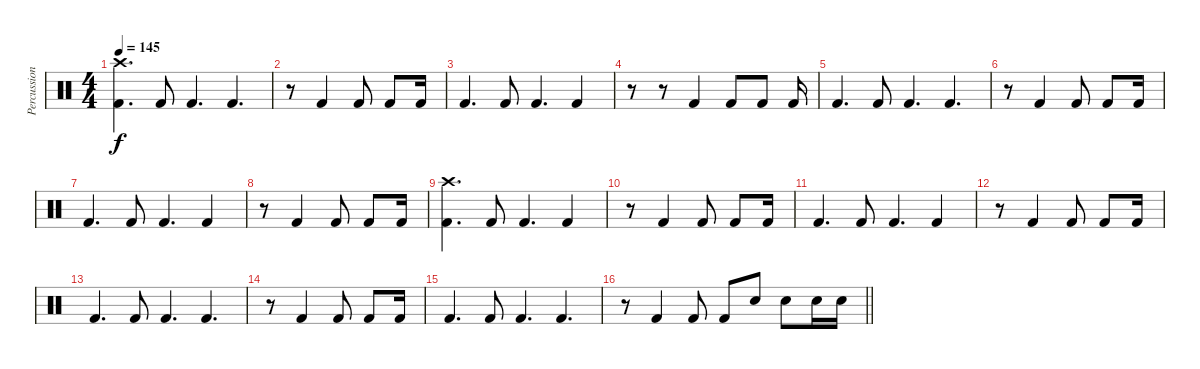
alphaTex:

\track ("Percussion" "Percussion") {instrument percussion}
\staff {score}
\articulation defaults
\ts (4 4)
\tempo 145
\clef neutral
\ks c
("Crash high (hit)" "Kick (hit) 2").4{d dy f} "Kick (hit) 2".8 "Kick (hit) 2".4{d} "Kick (hit) 2".4{d} |
r.8 "Kick (hit) 2".4 "Kick (hit) 2".8 "Kick (hit) 2".8 "Kick (hit) 2".16 |
"Kick (hit) 2".4{d} "Kick (hit) 2".8 "Kick (hit) 2".4{d} "Kick (hit) 2".4 |
r.8 r.8 "Kick (hit) 2".4 "Kick (hit) 2".8 "Kick (hit) 2".8 "Kick (hit) 2".16 |
"Kick (hit) 2".4{d} "Kick (hit) 2".8 "Kick (hit) 2".4{d} "Kick (hit) 2".4{d} |
r.8 "Kick (hit) 2".4 "Kick (hit) 2".8 "Kick (hit) 2".8 "Kick (hit) 2".16 |
"Kick (hit) 2".4{d} "Kick (hit) 2".8 "Kick (hit) 2".4{d} "Kick (hit) 2".4 |
r.8 "Kick (hit) 2".4 "Kick (hit) 2".8 "Kick (hit) 2".8 "Kick (hit) 2".16 |
("Crash high (hit)" "Kick (hit) 2").4{d} "Kick (hit) 2".8 "Kick (hit) 2".4{d} "Kick (hit) 2".4 |
r.8 "Kick (hit) 2".4 "Kick (hit) 2".8 "Kick (hit) 2".8 "Kick (hit) 2".16 |
"Kick (hit) 2".4{d} "Kick (hit) 2".8 "Kick (hit) 2".4{d} "Kick (hit) 2".4 |
r.8 "Kick (hit) 2".4 "Kick (hit) 2".8 "Kick (hit) 2".8 "Kick (hit) 2".16 |
"Kick (hit) 2".4{d} "Kick (hit) 2".8 "Kick (hit) 2".4{d} "Kick (hit) 2".4{d} |
r.8 "Kick (hit) 2".4 "Kick (hit) 2".8 "Kick (hit) 2".8 "Kick (hit) 2".16 |
"Kick (hit) 2".4{d} "Kick (hit) 2".8 "Kick (hit) 2".4{d} "Kick (hit) 2".4{d} |
\barLineRight lightlight
r.8 "Kick (hit) 2".4 "Kick (hit) 2".8 "Kick (hit) 2".8 "Electric Snare (hit)".8 "Electric Snare (hit)".8 "Electric Snare (hit)".16 "Electric Snare (hit)".16
